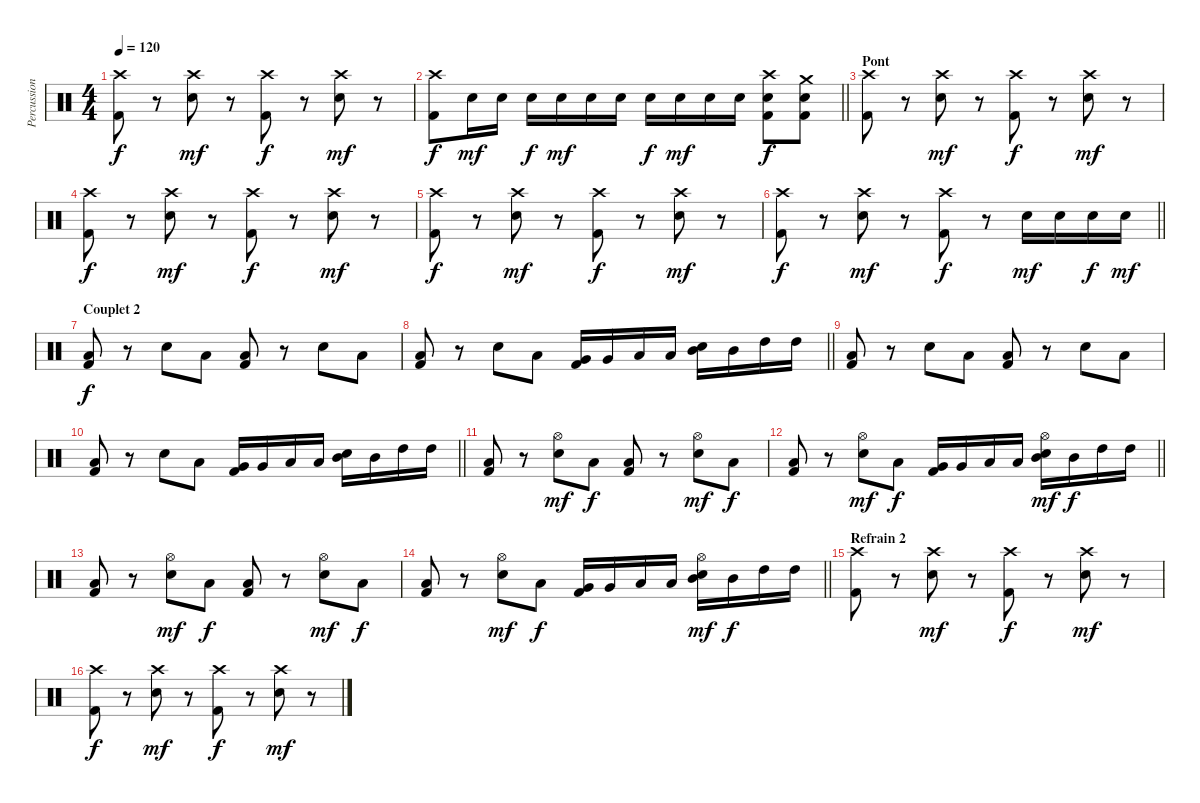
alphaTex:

\track ("Percussions" "Percussion") {instrument percussion}
\staff
\articulation defaults
\ts (4 4)
\tempo 120
\clef neutral
\ks c
("Crash high (hit)" "Kick (hit) 2").8{dy f} r.8 ("Crash high (hit)" "Electric Snare (hit)").8{dy mf} r.8 ("Crash high (hit)" "Kick (hit) 2").8{dy f} r.8 ("Crash high (hit)" "Electric Snare (hit)").8{dy mf} r.8 |
\barLineRight lightlight
("Crash high (hit)" "Kick (hit) 2").8{dy f} "Electric Snare (hit)".16{dy mf} "Electric Snare (hit)".16 "Electric Snare (hit)".16{dy f} "Electric Snare (hit)".16{dy mf} "Electric Snare (hit)".16 "Electric Snare (hit)".16 "Electric Snare (hit)".16{dy f} "Electric Snare (hit)".16{dy mf} "Electric Snare (hit)".16 "Electric Snare (hit)".16 ("Crash high (hit)" "Electric Snare (hit)" "Kick (hit) 2").8{dy f} ("Crash medium (hit)" "Electric Snare (hit)" "Kick (hit) 2").8 |
\section ("" "Pont")
("Crash high (hit)" "Kick (hit) 2").8 r.8 ("Crash high (hit)" "Electric Snare (hit)").8{dy mf} r.8 ("Crash high (hit)" "Kick (hit) 2").8{dy f} r.8 ("Crash high (hit)" "Electric Snare (hit)").8{dy mf} r.8 |
("Crash high (hit)" "Kick (hit) 2").8{dy f} r.8 ("Crash high (hit)" "Electric Snare (hit)").8{dy mf} r.8 ("Crash high (hit)" "Kick (hit) 2").8{dy f} r.8 ("Crash high (hit)" "Electric Snare (hit)").8{dy mf} r.8 |
("Crash high (hit)" "Kick (hit) 2").8{dy f} r.8 ("Crash high (hit)" "Electric Snare (hit)").8{dy mf} r.8 ("Crash high (hit)" "Kick (hit) 2").8{dy f} r.8 ("Crash high (hit)" "Electric Snare (hit)").8{dy mf} r.8 |
\barLineRight lightlight
("Crash high (hit)" "Kick (hit) 2").8{dy f} r.8 ("Crash high (hit)" "Electric Snare (hit)").8{dy mf} r.8 ("Crash high (hit)" "Kick (hit) 2").8{dy f} r.8 "Electric Snare (hit)".16{dy mf} "Electric Snare (hit)".16 "Electric Snare (hit)".16{dy f} "Electric Snare (hit)".16{dy mf} |
\section ("" "Couplet 2")
("Kick (hit) 2" "Low Floor Tom (hit)").8{dy f} r.8 "Electric Snare (hit)".8 "Low Floor Tom (hit)".8 ("Kick (hit) 2" "Low Floor Tom (hit)").8 r.8 "Electric Snare (hit)".8 "Low Floor Tom (hit)".8 |
\barLineRight lightlight
("Kick (hit) 2" "Low Floor Tom (hit)").8 r.8 "Electric Snare (hit)".8 "Low Floor Tom (hit)".8 ("Kick (hit) 2" "Very Low Tom (hit)").16 "Very Low Tom (hit)".16 "Low Tom (hit)".16 "Low Tom (hit)".16 ("Electric Snare (hit)" "Mid Tom (hit)").16 "Mid Tom (hit)".16 "High Tom (hit)".16 "High Tom (hit)".16 |
("Kick (hit) 2" "Low Floor Tom (hit)").8 r.8 "Electric Snare (hit)".8 "Low Floor Tom (hit)".8 ("Kick (hit) 2" "Low Floor Tom (hit)").8 r.8 "Electric Snare (hit)".8 "Low Floor Tom (hit)".8 |
\barLineRight lightlight
("Kick (hit) 2" "Low Floor Tom (hit)").8 r.8 "Electric Snare (hit)".8 "Low Floor Tom (hit)".8 ("Kick (hit) 2" "Very Low Tom (hit)").16 "Very Low Tom (hit)".16 "Low Tom (hit)".16 "Low Tom (hit)".16 ("Electric Snare (hit)" "Mid Tom (hit)").16 "Mid Tom (hit)".16 "High Tom (hit)".16 "High Tom (hit)".16 |
("Kick (hit) 2" "Low Floor Tom (hit)").8 r.8 ("Hi-Hat (open)" "Electric Snare (hit)").8{dy mf} "Low Floor Tom (hit)".8{dy f} ("Kick (hit) 2" "Low Floor Tom (hit)").8 r.8 ("Hi-Hat (open)" "Electric Snare (hit)").8{dy mf} "Low Floor Tom (hit)".8{dy f} |
\barLineRight lightlight
("Kick (hit) 2" "Low Floor Tom (hit)").8 r.8 ("Hi-Hat (open)" "Electric Snare (hit)").8{dy mf} "Low Floor Tom (hit)".8{dy f} ("Kick (hit) 2" "Very Low Tom (hit)").16 "Very Low Tom (hit)".16 "Low Tom (hit)".16 "Low Tom (hit)".16 ("Hi-Hat (open)" "Electric Snare (hit)" "Mid Tom (hit)").16{dy mf} "Mid Tom (hit)".16{dy f} "High Tom (hit)".16 "High Tom (hit)".16 |
("Kick (hit) 2" "Low Floor Tom (hit)").8 r.8 ("Hi-Hat (open)" "Electric Snare (hit)").8{dy mf} "Low Floor Tom (hit)".8{dy f} ("Kick (hit) 2" "Low Floor Tom (hit)").8 r.8 ("Hi-Hat (open)" "Electric Snare (hit)").8{dy mf} "Low Floor Tom (hit)".8{dy f} |
\barLineRight lightlight
("Kick (hit) 2" "Low Floor Tom (hit)").8 r.8 ("Hi-Hat (open)" "Electric Snare (hit)").8{dy mf} "Low Floor Tom (hit)".8{dy f} ("Kick (hit) 2" "Very Low Tom (hit)").16 "Very Low Tom (hit)".16 "Low Tom (hit)".16 "Low Tom (hit)".16 ("Hi-Hat (open)" "Electric Snare (hit)" "Mid Tom (hit)").16{dy mf} "Mid Tom (hit)".16{dy f} "High Tom (hit)".16 "High Tom (hit)".16 |
\section ("" "Refrain 2")
("Crash high (hit)" "Kick (hit) 2").8 r.8 ("Crash high (hit)" "Electric Snare (hit)").8{dy mf} r.8 ("Crash high (hit)" "Kick (hit) 2").8{dy f} r.8 ("Crash high (hit)" "Electric Snare (hit)").8{dy mf} r.8 |
("Crash high (hit)" "Kick (hit) 2").8{dy f} r.8 ("Crash high (hit)" "Electric Snare (hit)").8{dy mf} r.8 ("Crash high (hit)" "Kick (hit) 2").8{dy f} r.8 ("Crash high (hit)" "Electric Snare (hit)").8{dy mf} r.8
